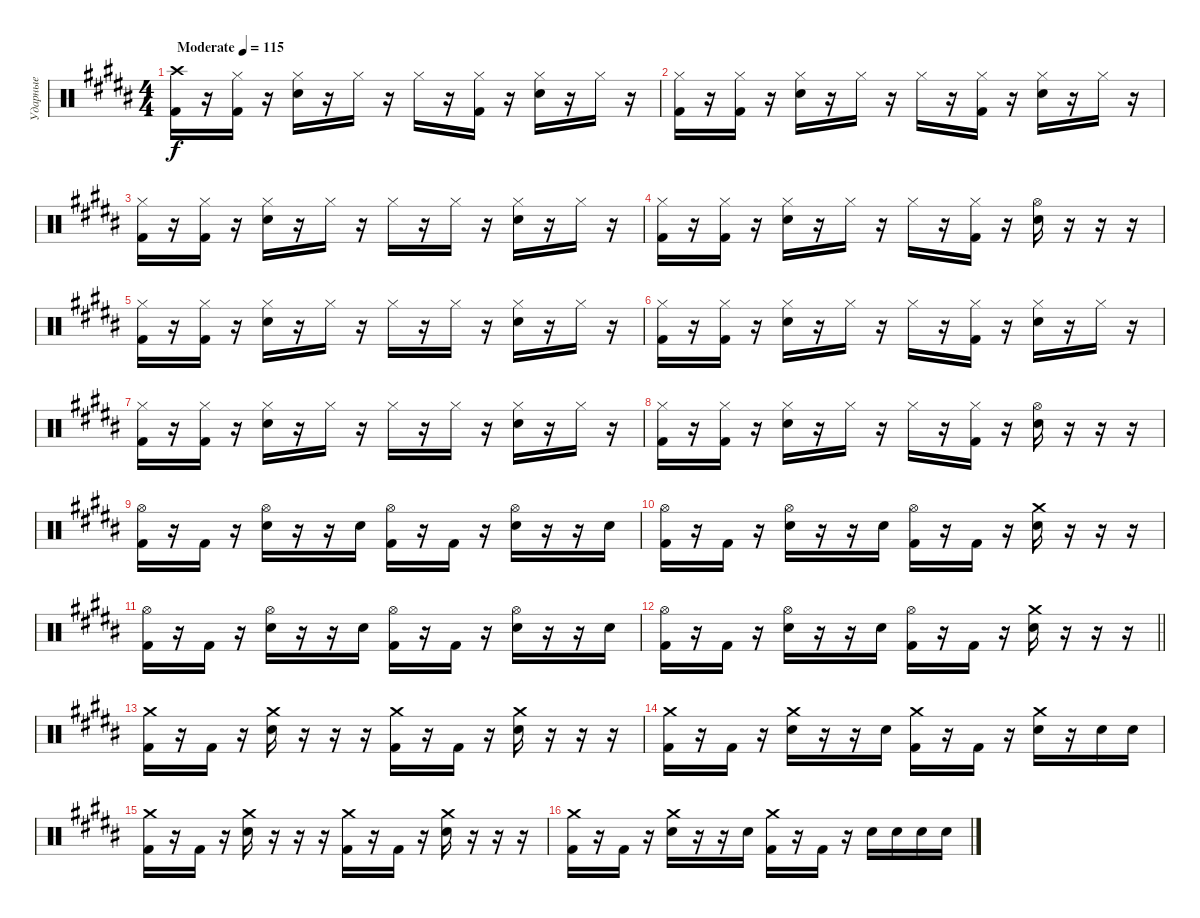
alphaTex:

\track ("Ударные" "Ударные") {instrument percussion}
\staff {score}
\articulation defaults
\ts (4 4)
\tempo (115 "Moderate")
\clef neutral
\ks b
("Crash high (hit)" "Kick (hit) 2").16{dy f} r.16 ("Hi-Hat (closed)" "Kick (hit) 2").16 r.16 ("Hi-Hat (closed)" "Snare (hit) 2").16 r.16 "Hi-Hat (closed)".16 r.16 "Hi-Hat (closed)".16 r.16 ("Hi-Hat (closed)" "Kick (hit) 2").16 r.16 ("Hi-Hat (closed)" "Snare (hit) 2").16 r.16 "Hi-Hat (closed)".16 r.16 |
("Hi-Hat (closed)" "Kick (hit) 2").16 r.16 ("Hi-Hat (closed)" "Kick (hit) 2").16 r.16 ("Hi-Hat (closed)" "Snare (hit) 2").16 r.16 "Hi-Hat (closed)".16 r.16 "Hi-Hat (closed)".16 r.16 ("Hi-Hat (closed)" "Kick (hit) 2").16 r.16 ("Hi-Hat (closed)" "Snare (hit) 2").16 r.16 "Hi-Hat (closed)".16 r.16 |
("Hi-Hat (closed)" "Kick (hit) 2").16 r.16 ("Hi-Hat (closed)" "Kick (hit) 2").16 r.16 ("Hi-Hat (closed)" "Snare (hit) 2").16 r.16 "Hi-Hat (closed)".16 r.16 "Hi-Hat (closed)".16 r.16 "Hi-Hat (closed)".16 r.16 ("Hi-Hat (closed)" "Snare (hit) 2").16 r.16 "Hi-Hat (closed)".16 r.16 |
("Hi-Hat (closed)" "Kick (hit) 2").16 r.16 ("Hi-Hat (closed)" "Kick (hit) 2").16 r.16 ("Hi-Hat (closed)" "Snare (hit) 2").16 r.16 "Hi-Hat (closed)".16 r.16 "Hi-Hat (closed)".16 r.16 ("Hi-Hat (closed)" "Kick (hit) 2").16 r.16 ("Hi-Hat (open)" "Snare (hit) 2").16 r.16 r.16 r.16 |
("Hi-Hat (closed)" "Kick (hit) 2").16 r.16 ("Hi-Hat (closed)" "Kick (hit) 2").16 r.16 ("Hi-Hat (closed)" "Snare (hit) 2").16 r.16 "Hi-Hat (closed)".16 r.16 "Hi-Hat (closed)".16 r.16 "Hi-Hat (closed)".16 r.16 ("Hi-Hat (closed)" "Snare (hit) 2").16 r.16 "Hi-Hat (closed)".16 r.16 |
("Hi-Hat (closed)" "Kick (hit) 2").16 r.16 ("Hi-Hat (closed)" "Kick (hit) 2").16 r.16 ("Hi-Hat (closed)" "Snare (hit) 2").16 r.16 "Hi-Hat (closed)".16 r.16 "Hi-Hat (closed)".16 r.16 ("Hi-Hat (closed)" "Kick (hit) 2").16 r.16 ("Hi-Hat (closed)" "Snare (hit) 2").16 r.16 "Hi-Hat (closed)".16 r.16 |
("Hi-Hat (closed)" "Kick (hit) 2").16 r.16 ("Hi-Hat (closed)" "Kick (hit) 2").16 r.16 ("Hi-Hat (closed)" "Snare (hit) 2").16 r.16 "Hi-Hat (closed)".16 r.16 "Hi-Hat (closed)".16 r.16 "Hi-Hat (closed)".16 r.16 ("Hi-Hat (closed)" "Snare (hit) 2").16 r.16 "Hi-Hat (closed)".16 r.16 |
("Hi-Hat (closed)" "Kick (hit) 2").16 r.16 ("Hi-Hat (closed)" "Kick (hit) 2").16 r.16 ("Hi-Hat (closed)" "Snare (hit) 2").16 r.16 "Hi-Hat (closed)".16 r.16 "Hi-Hat (closed)".16 r.16 ("Hi-Hat (closed)" "Kick (hit) 2").16 r.16 ("Hi-Hat (open)" "Snare (hit) 2").16 r.16 r.16 r.16 |
("Hi-Hat (open)" "Kick (hit) 2").16 r.16 "Kick (hit) 2".16 r.16 ("Hi-Hat (open)" "Snare (hit) 2").16 r.16 r.16 "Snare (hit) 2".16 ("Hi-Hat (open)" "Kick (hit) 2").16 r.16 "Kick (hit) 2".16 r.16 ("Hi-Hat (open)" "Snare (hit) 2").16 r.16 r.16 "Snare (hit) 2".16 |
("Hi-Hat (open)" "Kick (hit) 2").16 r.16 "Kick (hit) 2".16 r.16 ("Hi-Hat (open)" "Snare (hit) 2").16 r.16 r.16 "Snare (hit) 2".16 ("Hi-Hat (open)" "Kick (hit) 2").16 r.16 "Kick (hit) 2".16 r.16 ("Crash medium (hit)" "Snare (hit) 2").16 r.16 r.16 r.16 |
("Hi-Hat (open)" "Kick (hit) 2").16 r.16 "Kick (hit) 2".16 r.16 ("Hi-Hat (open)" "Snare (hit) 2").16 r.16 r.16 "Snare (hit) 2".16 ("Hi-Hat (open)" "Kick (hit) 2").16 r.16 "Kick (hit) 2".16 r.16 ("Hi-Hat (open)" "Snare (hit) 2").16 r.16 r.16 "Snare (hit) 2".16 |
\barLineRight lightlight
("Hi-Hat (open)" "Kick (hit) 2").16 r.16 "Kick (hit) 2".16 r.16 ("Hi-Hat (open)" "Snare (hit) 2").16 r.16 r.16 "Snare (hit) 2".16 ("Hi-Hat (open)" "Kick (hit) 2").16 r.16 "Kick (hit) 2".16 r.16 ("Crash medium (hit)" "Snare (hit) 2").16 r.16 r.16 r.16 |
("Crash medium (hit)" "Kick (hit) 2").16 r.16 "Kick (hit) 2".16 r.16 ("Crash medium (hit)" "Snare (hit) 2").16 r.16 r.16 r.16 ("Crash medium (hit)" "Kick (hit) 2").16 r.16 "Kick (hit) 2".16 r.16 ("Crash medium (hit)" "Snare (hit) 2").16 r.16 r.16 r.16 |
("Crash medium (hit)" "Kick (hit) 2").16 r.16 "Kick (hit) 2".16 r.16 ("Crash medium (hit)" "Snare (hit) 2").16 r.16 r.16 "Snare (hit) 2".16 ("Crash medium (hit)" "Kick (hit) 2").16 r.16 "Kick (hit) 2".16 r.16 ("Crash medium (hit)" "Snare (hit) 2").16 r.16 "Snare (hit) 2".16 "Snare (hit) 2".16 |
("Crash medium (hit)" "Kick (hit) 2").16 r.16 "Kick (hit) 2".16 r.16 ("Crash medium (hit)" "Snare (hit) 2").16 r.16 r.16 r.16 ("Crash medium (hit)" "Kick (hit) 2").16 r.16 "Kick (hit) 2".16 r.16 ("Crash medium (hit)" "Snare (hit) 2").16 r.16 r.16 r.16 |
("Crash medium (hit)" "Kick (hit) 2").16 r.16 "Kick (hit) 2".16 r.16 ("Crash medium (hit)" "Snare (hit) 2").16 r.16 r.16 "Snare (hit) 2".16 ("Crash medium (hit)" "Kick (hit) 2").16 r.16 "Kick (hit) 2".16 r.16 "Snare (hit) 2".16 "Snare (hit) 2".16 "Snare (hit) 2".16 "Snare (hit) 2".16
